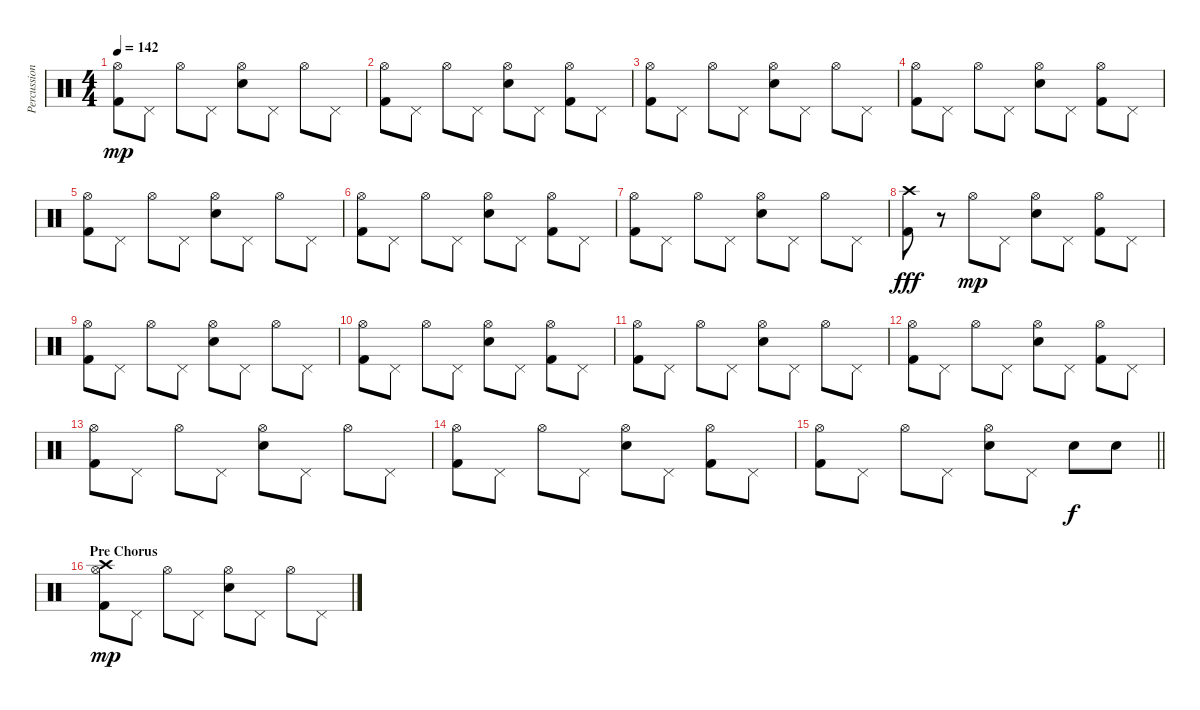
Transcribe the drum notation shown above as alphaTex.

\track ("Percussion" "Percussion") {instrument percussion}
\staff {score}
\articulation defaults
\ts (4 4)
\tempo 142
\clef neutral
\ks c
("Kick (hit) 2" "Hi-Hat (open)").8{dy mp} "Pedal Hi-Hat (hit)".8 "Hi-Hat (open)".8 "Pedal Hi-Hat (hit)".8 ("Electric Snare (hit)" "Hi-Hat (open)").8 "Pedal Hi-Hat (hit)".8 "Hi-Hat (open)".8 "Pedal Hi-Hat (hit)".8 |
("Kick (hit) 2" "Hi-Hat (open)").8 "Pedal Hi-Hat (hit)".8 "Hi-Hat (open)".8 "Pedal Hi-Hat (hit)".8 ("Electric Snare (hit)" "Hi-Hat (open)").8 "Pedal Hi-Hat (hit)".8 ("Kick (hit) 2" "Hi-Hat (open)").8 "Pedal Hi-Hat (hit)".8 |
("Kick (hit) 2" "Hi-Hat (open)").8 "Pedal Hi-Hat (hit)".8 "Hi-Hat (open)".8 "Pedal Hi-Hat (hit)".8 ("Electric Snare (hit)" "Hi-Hat (open)").8 "Pedal Hi-Hat (hit)".8 "Hi-Hat (open)".8 "Pedal Hi-Hat (hit)".8 |
("Kick (hit) 2" "Hi-Hat (open)").8 "Pedal Hi-Hat (hit)".8 "Hi-Hat (open)".8 "Pedal Hi-Hat (hit)".8 ("Electric Snare (hit)" "Hi-Hat (open)").8 "Pedal Hi-Hat (hit)".8 ("Kick (hit) 2" "Hi-Hat (open)").8 "Pedal Hi-Hat (hit)".8 |
("Kick (hit) 2" "Hi-Hat (open)").8 "Pedal Hi-Hat (hit)".8 "Hi-Hat (open)".8 "Pedal Hi-Hat (hit)".8 ("Electric Snare (hit)" "Hi-Hat (open)").8 "Pedal Hi-Hat (hit)".8 "Hi-Hat (open)".8 "Pedal Hi-Hat (hit)".8 |
("Kick (hit) 2" "Hi-Hat (open)").8 "Pedal Hi-Hat (hit)".8 "Hi-Hat (open)".8 "Pedal Hi-Hat (hit)".8 ("Electric Snare (hit)" "Hi-Hat (open)").8 "Pedal Hi-Hat (hit)".8 ("Kick (hit) 2" "Hi-Hat (open)").8 "Pedal Hi-Hat (hit)".8 |
("Kick (hit) 2" "Hi-Hat (open)").8 "Pedal Hi-Hat (hit)".8 "Hi-Hat (open)".8 "Pedal Hi-Hat (hit)".8 ("Electric Snare (hit)" "Hi-Hat (open)").8 "Pedal Hi-Hat (hit)".8 "Hi-Hat (open)".8 "Pedal Hi-Hat (hit)".8 |
("Kick (hit) 2" "Crash high (hit)").8{dy fff} r.8 "Hi-Hat (open)".8{dy mp} "Pedal Hi-Hat (hit)".8 ("Electric Snare (hit)" "Hi-Hat (open)").8 "Pedal Hi-Hat (hit)".8 ("Kick (hit) 2" "Hi-Hat (open)").8 "Pedal Hi-Hat (hit)".8 |
("Kick (hit) 2" "Hi-Hat (open)").8 "Pedal Hi-Hat (hit)".8 "Hi-Hat (open)".8 "Pedal Hi-Hat (hit)".8 ("Electric Snare (hit)" "Hi-Hat (open)").8 "Pedal Hi-Hat (hit)".8 "Hi-Hat (open)".8 "Pedal Hi-Hat (hit)".8 |
("Kick (hit) 2" "Hi-Hat (open)").8 "Pedal Hi-Hat (hit)".8 "Hi-Hat (open)".8 "Pedal Hi-Hat (hit)".8 ("Electric Snare (hit)" "Hi-Hat (open)").8 "Pedal Hi-Hat (hit)".8 ("Kick (hit) 2" "Hi-Hat (open)").8 "Pedal Hi-Hat (hit)".8 |
("Kick (hit) 2" "Hi-Hat (open)").8 "Pedal Hi-Hat (hit)".8 "Hi-Hat (open)".8 "Pedal Hi-Hat (hit)".8 ("Electric Snare (hit)" "Hi-Hat (open)").8 "Pedal Hi-Hat (hit)".8 "Hi-Hat (open)".8 "Pedal Hi-Hat (hit)".8 |
("Kick (hit) 2" "Hi-Hat (open)").8 "Pedal Hi-Hat (hit)".8 "Hi-Hat (open)".8 "Pedal Hi-Hat (hit)".8 ("Electric Snare (hit)" "Hi-Hat (open)").8 "Pedal Hi-Hat (hit)".8 ("Kick (hit) 2" "Hi-Hat (open)").8 "Pedal Hi-Hat (hit)".8 |
("Kick (hit) 2" "Hi-Hat (open)").8 "Pedal Hi-Hat (hit)".8 "Hi-Hat (open)".8 "Pedal Hi-Hat (hit)".8 ("Electric Snare (hit)" "Hi-Hat (open)").8 "Pedal Hi-Hat (hit)".8 "Hi-Hat (open)".8 "Pedal Hi-Hat (hit)".8 |
("Kick (hit) 2" "Hi-Hat (open)").8 "Pedal Hi-Hat (hit)".8 "Hi-Hat (open)".8 "Pedal Hi-Hat (hit)".8 ("Electric Snare (hit)" "Hi-Hat (open)").8 "Pedal Hi-Hat (hit)".8 ("Kick (hit) 2" "Hi-Hat (open)").8 "Pedal Hi-Hat (hit)".8 |
\barLineRight lightlight
("Kick (hit) 2" "Hi-Hat (open)").8 "Pedal Hi-Hat (hit)".8 "Hi-Hat (open)".8 "Pedal Hi-Hat (hit)".8 ("Electric Snare (hit)" "Hi-Hat (open)").8 "Pedal Hi-Hat (hit)".8 "Electric Snare (hit)".8{dy f} "Electric Snare (hit)".8 |
\section ("" "Pre Chorus")
("Kick (hit) 2" "Hi-Hat (open)" "Crash high (hit)").8{dy mp} "Pedal Hi-Hat (hit)".8 "Hi-Hat (open)".8 "Pedal Hi-Hat (hit)".8 ("Electric Snare (hit)" "Hi-Hat (open)").8 "Pedal Hi-Hat (hit)".8 "Hi-Hat (open)".8 "Pedal Hi-Hat (hit)".8
